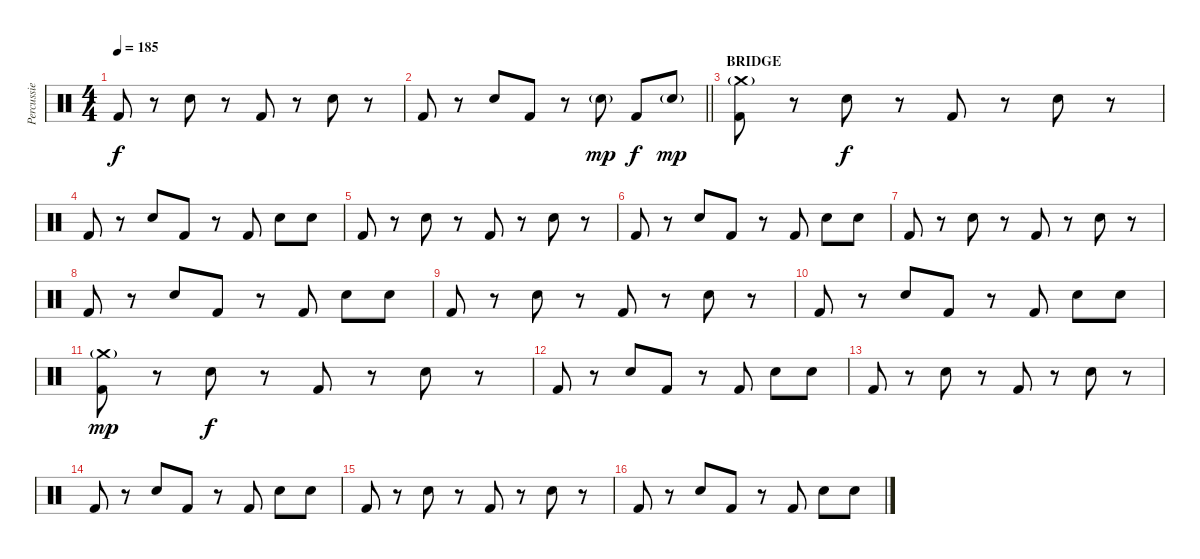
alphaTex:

\track ("Percussie" "Percussie") {instrument percussion}
\staff {score}
\articulation defaults
\ts (4 4)
\tempo 185
\clef neutral
\ks c "Kick (hit) 2".8{dy f}
r.8 "Snare (hit) 2".8 r.8 "Kick (hit) 2".8 r.8 "Snare (hit) 2".8 r.8 |
\barLineRight lightlight "Kick (hit) 2".8
r.8 "Snare (hit) 2".8 "Kick (hit) 2".8 r.8 "Snare (hit) 2"{g}.8{dy mp} "Kick (hit) 2".8{dy f} "Snare (hit) 2"{g}.8{dy mp} |
\section ("" "BRIDGE")
("Crash medium (hit)"{g} "Kick (hit) 2").8 r.8 "Snare (hit) 2".8{dy f} r.8 "Kick (hit) 2".8 r.8 "Snare (hit) 2".8 r.8 |
"Kick (hit) 2".8 r.8 "Snare (hit) 2".8 "Kick (hit) 2".8 r.8 "Kick (hit) 2".8 "Snare (hit) 2".8 "Snare (hit) 2".8 |
"Kick (hit) 2".8 r.8 "Snare (hit) 2".8 r.8 "Kick (hit) 2".8 r.8 "Snare (hit) 2".8 r.8 |
"Kick (hit) 2".8 r.8 "Snare (hit) 2".8 "Kick (hit) 2".8 r.8 "Kick (hit) 2".8 "Snare (hit) 2".8 "Snare (hit) 2".8 |
"Kick (hit) 2".8 r.8 "Snare (hit) 2".8 r.8 "Kick (hit) 2".8 r.8 "Snare (hit) 2".8 r.8 |
"Kick (hit) 2".8 r.8 "Snare (hit) 2".8 "Kick (hit) 2".8 r.8 "Kick (hit) 2".8 "Snare (hit) 2".8 "Snare (hit) 2".8 |
"Kick (hit) 2".8 r.8 "Snare (hit) 2".8 r.8 "Kick (hit) 2".8 r.8 "Snare (hit) 2".8 r.8 |
"Kick (hit) 2".8 r.8 "Snare (hit) 2".8 "Kick (hit) 2".8 r.8 "Kick (hit) 2".8 "Snare (hit) 2".8 "Snare (hit) 2".8 |
("Crash medium (hit)"{g} "Kick (hit) 2").8{dy mp} r.8 "Snare (hit) 2".8{dy f} r.8 "Kick (hit) 2".8 r.8 "Snare (hit) 2".8 r.8 |
"Kick (hit) 2".8 r.8 "Snare (hit) 2".8 "Kick (hit) 2".8 r.8 "Kick (hit) 2".8 "Snare (hit) 2".8 "Snare (hit) 2".8 |
"Kick (hit) 2".8 r.8 "Snare (hit) 2".8 r.8 "Kick (hit) 2".8 r.8 "Snare (hit) 2".8 r.8 |
"Kick (hit) 2".8 r.8 "Snare (hit) 2".8 "Kick (hit) 2".8 r.8 "Kick (hit) 2".8 "Snare (hit) 2".8 "Snare (hit) 2".8 |
"Kick (hit) 2".8 r.8 "Snare (hit) 2".8 r.8 "Kick (hit) 2".8 r.8 "Snare (hit) 2".8 r.8 |
"Kick (hit) 2".8 r.8 "Snare (hit) 2".8 "Kick (hit) 2".8 r.8 "Kick (hit) 2".8 "Snare (hit) 2".8 "Snare (hit) 2".8
